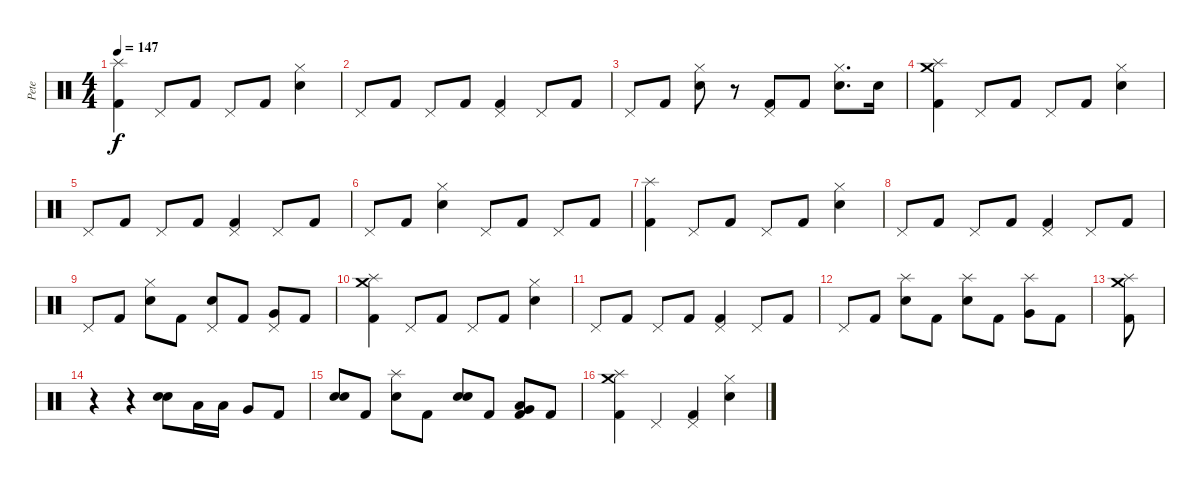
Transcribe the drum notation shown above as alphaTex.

\track ("Pete" "Pete") {instrument percussion}
\staff {score}
\articulation defaults
\ts (4 4)
\tempo 147
\clef neutral
\ks c
("Splash (hit)" "Kick (hit) 2").4{dy f} "Pedal Hi-Hat (hit)".8 "Kick (hit) 2".8 "Pedal Hi-Hat (hit)".8 "Kick (hit) 2".8 ("Hi-Hat (closed)" "Electric Snare (hit)").4 |
"Pedal Hi-Hat (hit)".8 "Kick (hit) 2".8 "Pedal Hi-Hat (hit)".8 "Kick (hit) 2".8 ("Pedal Hi-Hat (hit)" "Kick (hit) 2").4 "Pedal Hi-Hat (hit)".8 "Kick (hit) 2".8 |
"Pedal Hi-Hat (hit)".8 "Kick (hit) 2".8 ("Hi-Hat (closed)" "Electric Snare (hit)").8 r.8 ("Pedal Hi-Hat (hit)" "Kick (hit) 2").8 "Kick (hit) 2".8 ("Hi-Hat (closed)" "Electric Snare (hit)").8{d} "Electric Snare (hit)".16 |
("Crash medium (hit)" "Splash (hit)" "Kick (hit) 2").4 "Pedal Hi-Hat (hit)".8 "Kick (hit) 2".8 "Pedal Hi-Hat (hit)".8 "Kick (hit) 2".8 ("Hi-Hat (closed)" "Electric Snare (hit)").4 |
"Pedal Hi-Hat (hit)".8 "Kick (hit) 2".8 "Pedal Hi-Hat (hit)".8 "Kick (hit) 2".8 ("Pedal Hi-Hat (hit)" "Kick (hit) 2").4 "Pedal Hi-Hat (hit)".8 "Kick (hit) 2".8 |
"Pedal Hi-Hat (hit)".8 "Kick (hit) 2".8 ("Hi-Hat (closed)" "Electric Snare (hit)").4 "Pedal Hi-Hat (hit)".8 "Kick (hit) 2".8 "Pedal Hi-Hat (hit)".8 "Kick (hit) 2".8 |
("Splash (hit)" "Kick (hit) 2").4 "Pedal Hi-Hat (hit)".8 "Kick (hit) 2".8 "Pedal Hi-Hat (hit)".8 "Kick (hit) 2".8 ("Hi-Hat (closed)" "Electric Snare (hit)").4 |
"Pedal Hi-Hat (hit)".8 "Kick (hit) 2".8 "Pedal Hi-Hat (hit)".8 "Kick (hit) 2".8 ("Pedal Hi-Hat (hit)" "Kick (hit) 2").4 "Pedal Hi-Hat (hit)".8 "Kick (hit) 2".8 |
"Pedal Hi-Hat (hit)".8 "Kick (hit) 2".8 ("Hi-Hat (closed)" "Electric Snare (hit)").8 "Kick (hit) 2".8 ("Pedal Hi-Hat (hit)" "Electric Snare (hit)").8 "Kick (hit) 2".8 ("Pedal Hi-Hat (hit)" "Very Low Tom (hit)").8 "Kick (hit) 2".8 |
("Crash medium (hit)" "Splash (hit)" "Kick (hit) 2").4 "Pedal Hi-Hat (hit)".8 "Kick (hit) 2".8 "Pedal Hi-Hat (hit)".8 "Kick (hit) 2".8 ("Hi-Hat (closed)" "Electric Snare (hit)").4 |
"Pedal Hi-Hat (hit)".8 "Kick (hit) 2".8 "Pedal Hi-Hat (hit)".8 "Kick (hit) 2".8 ("Pedal Hi-Hat (hit)" "Kick (hit) 2").4 "Pedal Hi-Hat (hit)".8 "Kick (hit) 2".8 |
"Pedal Hi-Hat (hit)".8 "Kick (hit) 2".8 ("Splash (hit)" "Electric Snare (hit)").8 "Kick (hit) 2".8 ("Splash (hit)" "Electric Snare (hit)").8 "Kick (hit) 2".8 ("Splash (hit)" "Very Low Tom (hit)").8 "Kick (hit) 2".8 |
("Crash medium (hit)" "Splash (hit)" "Kick (hit) 2").8 |
r.4 r.4 ("Electric Snare (hit)" "Electric Snare (hit)").8 "Low Tom (hit)".16 "Low Tom (hit)".16 "Very Low Tom (hit)".8 "Kick (hit) 2".8 |
("Electric Snare (hit)" "Electric Snare (hit)").8 "Kick (hit) 2".8 ("Splash (hit)" "Electric Snare (hit)").8 "Kick (hit) 2".8 ("Electric Snare (hit)" "Electric Snare (hit)").8 "Kick (hit) 2".8 ("Low Tom (hit)" "Very Low Tom (hit)" "Kick (hit) 2").8 "Kick (hit) 2".8 |
("Crash medium (hit)" "Splash (hit)" "Kick (hit) 2").4 "Pedal Hi-Hat (hit)".4 ("Pedal Hi-Hat (hit)" "Kick (hit) 2").4 ("Hi-Hat (closed)" "Electric Snare (hit)").4
